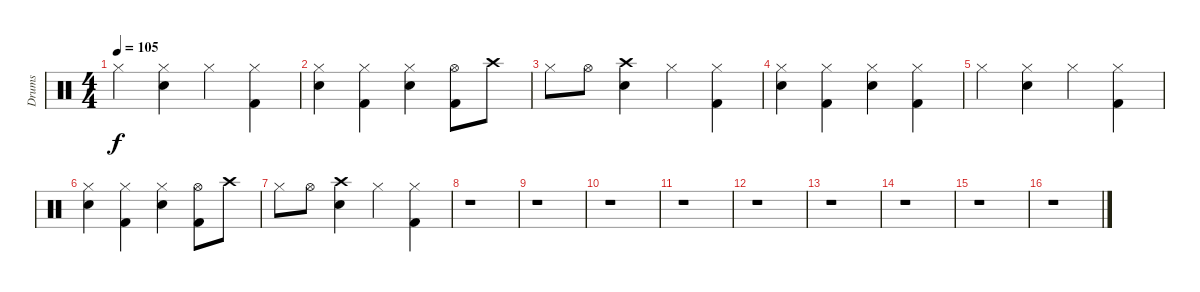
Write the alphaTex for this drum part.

\track ("Drums" "Drums") {instrument percussion}
\staff {score}
\articulation defaults
\ts (4 4)
\tempo 105
\clef neutral
\ks c "Hi-Hat (closed)".4{dy f}
("Hi-Hat (closed)" "Electric Snare (hit)").4 "Hi-Hat (closed)".4 ("Hi-Hat (closed)" "Kick (hit) 2").4 |
("Hi-Hat (closed)" "Electric Snare (hit)").4 ("Hi-Hat (closed)" "Kick (hit) 2").4 ("Hi-Hat (closed)" "Electric Snare (hit)").4 ("Hi-Hat (open)" "Kick (hit) 2").8 "Crash high (hit)".8 |
"Hi-Hat (closed)".8 "Hi-Hat (open)".8 ("Crash high (hit)" "Electric Snare (hit)").4 "Hi-Hat (closed)".4 ("Hi-Hat (closed)" "Kick (hit) 2").4 |
("Hi-Hat (closed)" "Electric Snare (hit)").4 ("Hi-Hat (closed)" "Kick (hit) 2").4 ("Hi-Hat (closed)" "Electric Snare (hit)").4 ("Hi-Hat (closed)" "Kick (hit) 2").4 |
"Hi-Hat (closed)".4 ("Hi-Hat (closed)" "Electric Snare (hit)").4 "Hi-Hat (closed)".4 ("Hi-Hat (closed)" "Kick (hit) 2").4 |
("Hi-Hat (closed)" "Electric Snare (hit)").4 ("Hi-Hat (closed)" "Kick (hit) 2").4 ("Hi-Hat (closed)" "Electric Snare (hit)").4 ("Hi-Hat (open)" "Kick (hit) 2").8 "Crash high (hit)".8 |
"Hi-Hat (closed)".8 "Hi-Hat (open)".8 ("Crash high (hit)" "Electric Snare (hit)").4 "Hi-Hat (closed)".4 ("Hi-Hat (closed)" "Kick (hit) 2").4 |
r.1 |
r.1 |
r.1 |
r.1 |
r.1 |
r.1 |
r.1 |
r.1 |
r.1
